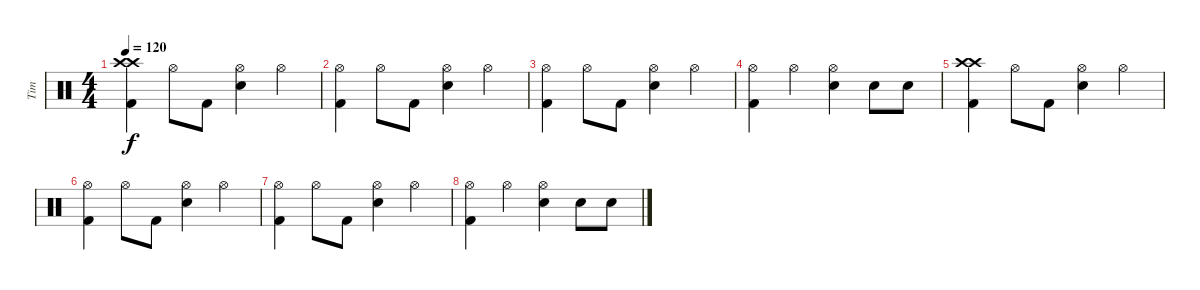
\track ("Tim" "Tim") {instrument percussion}
\staff {score}
\articulation defaults
\ts (4 4)
\tempo 120
\clef neutral
\ks c
("Crash high (hit)" "Crash high (hit)" "Kick (hit) 2").4{dy f} "Hi-Hat (open)".8 "Kick (hit) 2".8 ("Hi-Hat (open)" "Snare (hit) 2").4 "Hi-Hat (open)".4 |
("Hi-Hat (open)" "Kick (hit) 2").4 "Hi-Hat (open)".8 "Kick (hit) 2".8 ("Hi-Hat (open)" "Snare (hit) 2").4 "Hi-Hat (open)".4 |
("Hi-Hat (open)" "Kick (hit) 2").4 "Hi-Hat (open)".8 "Kick (hit) 2".8 ("Hi-Hat (open)" "Snare (hit) 2").4 "Hi-Hat (open)".4 |
("Hi-Hat (open)" "Kick (hit) 2").4 "Hi-Hat (open)".4 ("Hi-Hat (open)" "Snare (hit) 2").4 "Snare (hit) 2".8 "Snare (hit) 2".8 |
("Crash high (hit)" "Crash high (hit)" "Kick (hit) 2").4 "Hi-Hat (open)".8 "Kick (hit) 2".8 ("Hi-Hat (open)" "Snare (hit) 2").4 "Hi-Hat (open)".4 |
("Hi-Hat (open)" "Kick (hit) 2").4 "Hi-Hat (open)".8 "Kick (hit) 2".8 ("Hi-Hat (open)" "Snare (hit) 2").4 "Hi-Hat (open)".4 |
("Hi-Hat (open)" "Kick (hit) 2").4 "Hi-Hat (open)".8 "Kick (hit) 2".8 ("Hi-Hat (open)" "Snare (hit) 2").4 "Hi-Hat (open)".4 |
("Hi-Hat (open)" "Kick (hit) 2").4 "Hi-Hat (open)".4 ("Hi-Hat (open)" "Snare (hit) 2").4 "Snare (hit) 2".8 "Snare (hit) 2".8
